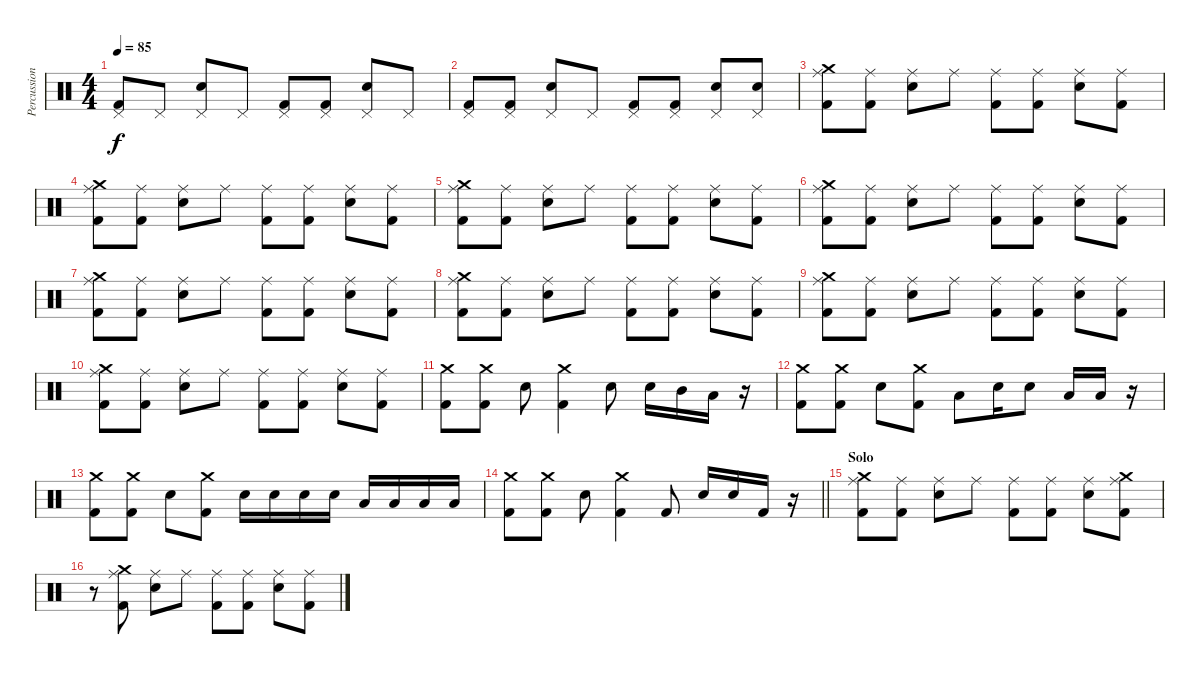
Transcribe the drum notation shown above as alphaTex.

\track ("Percussions" "Percussion") {instrument percussion}
\staff {score}
\articulation defaults
\ts (4 4)
\tempo 85
\clef neutral
\ks c
("Pedal Hi-Hat (hit)" "Kick (hit) 2").8{dy f} "Pedal Hi-Hat (hit)".8 ("Pedal Hi-Hat (hit)" "Snare (hit) 2").8 "Pedal Hi-Hat (hit)".8 ("Pedal Hi-Hat (hit)" "Kick (hit) 2").8 ("Pedal Hi-Hat (hit)" "Kick (hit) 2").8 ("Pedal Hi-Hat (hit)" "Snare (hit) 2").8 "Pedal Hi-Hat (hit)".8 |
("Pedal Hi-Hat (hit)" "Kick (hit) 2").8 ("Pedal Hi-Hat (hit)" "Kick (hit) 2").8 ("Pedal Hi-Hat (hit)" "Snare (hit) 2").8 "Pedal Hi-Hat (hit)".8 ("Pedal Hi-Hat (hit)" "Kick (hit) 2").8 ("Pedal Hi-Hat (hit)" "Kick (hit) 2").8 ("Pedal Hi-Hat (hit)" "Snare (hit) 2").8 ("Pedal Hi-Hat (hit)" "Snare (hit) 2").8 |
("Ride (middle)" "Crash medium (hit)" "Kick (hit) 2").8 ("Ride (middle)" "Kick (hit) 2").8 ("Ride (middle)" "Snare (hit) 2").8 "Ride (middle)".8 ("Ride (middle)" "Kick (hit) 2").8 ("Ride (middle)" "Kick (hit) 2").8 ("Ride (middle)" "Snare (hit) 2").8 ("Ride (middle)" "Kick (hit) 2").8 |
("Ride (middle)" "Crash medium (hit)" "Kick (hit) 2").8 ("Ride (middle)" "Kick (hit) 2").8 ("Ride (middle)" "Snare (hit) 2").8 "Ride (middle)".8 ("Ride (middle)" "Kick (hit) 2").8 ("Ride (middle)" "Kick (hit) 2").8 ("Ride (middle)" "Snare (hit) 2").8 ("Ride (middle)" "Kick (hit) 2").8 |
("Ride (middle)" "Crash medium (hit)" "Kick (hit) 2").8 ("Ride (middle)" "Kick (hit) 2").8 ("Ride (middle)" "Snare (hit) 2").8 "Ride (middle)".8 ("Ride (middle)" "Kick (hit) 2").8 ("Ride (middle)" "Kick (hit) 2").8 ("Ride (middle)" "Snare (hit) 2").8 ("Ride (middle)" "Kick (hit) 2").8 |
("Ride (middle)" "Crash medium (hit)" "Kick (hit) 2").8 ("Ride (middle)" "Kick (hit) 2").8 ("Ride (middle)" "Snare (hit) 2").8 "Ride (middle)".8 ("Ride (middle)" "Kick (hit) 2").8 ("Ride (middle)" "Kick (hit) 2").8 ("Ride (middle)" "Snare (hit) 2").8 ("Ride (middle)" "Kick (hit) 2").8 |
("Ride (middle)" "Crash medium (hit)" "Kick (hit) 2").8 ("Ride (middle)" "Kick (hit) 2").8 ("Ride (middle)" "Snare (hit) 2").8 "Ride (middle)".8 ("Ride (middle)" "Kick (hit) 2").8 ("Ride (middle)" "Kick (hit) 2").8 ("Ride (middle)" "Snare (hit) 2").8 ("Ride (middle)" "Kick (hit) 2").8 |
("Ride (middle)" "Crash medium (hit)" "Kick (hit) 2").8 ("Ride (middle)" "Kick (hit) 2").8 ("Ride (middle)" "Snare (hit) 2").8 "Ride (middle)".8 ("Ride (middle)" "Kick (hit) 2").8 ("Ride (middle)" "Kick (hit) 2").8 ("Ride (middle)" "Snare (hit) 2").8 ("Ride (middle)" "Kick (hit) 2").8 |
("Ride (middle)" "Crash medium (hit)" "Kick (hit) 2").8 ("Ride (middle)" "Kick (hit) 2").8 ("Ride (middle)" "Snare (hit) 2").8 "Ride (middle)".8 ("Ride (middle)" "Kick (hit) 2").8 ("Ride (middle)" "Kick (hit) 2").8 ("Ride (middle)" "Snare (hit) 2").8 ("Ride (middle)" "Kick (hit) 2").8 |
("Ride (middle)" "Crash medium (hit)" "Kick (hit) 2").8 ("Ride (middle)" "Kick (hit) 2").8 ("Ride (middle)" "Snare (hit) 2").8 "Ride (middle)".8 ("Ride (middle)" "Kick (hit) 2").8 ("Ride (middle)" "Kick (hit) 2").8 ("Ride (middle)" "Snare (hit) 2").8 ("Ride (middle)" "Kick (hit) 2").8 |
("Crash medium (hit)" "Kick (hit) 2").8 ("Crash medium (hit)" "Kick (hit) 2").8 "Snare (hit) 2".8 ("Crash medium (hit)" "Kick (hit) 2").4 "Snare (hit) 2".8 "Snare (hit) 2".16 "Mid Tom (hit)".16 "Low Tom (hit)".16 r.16 |
("Crash medium (hit)" "Kick (hit) 2").8 ("Crash medium (hit)" "Kick (hit) 2").8 "Snare (hit) 2".8 ("Crash medium (hit)" "Kick (hit) 2").8 "Low Floor Tom (hit)".8 "Snare (hit) 2".16 "Snare (hit) 2".8 "Low Floor Tom (hit)".16 "Low Floor Tom (hit)".16 r.16 |
("Crash medium (hit)" "Kick (hit) 2").8 ("Crash medium (hit)" "Kick (hit) 2").8 "Snare (hit) 2".8 ("Crash medium (hit)" "Kick (hit) 2").8 "Snare (hit) 2".16 "Snare (hit) 2".16 "Snare (hit) 2".16 "Snare (hit) 2".16 "Low Tom (hit)".16 "Low Tom (hit)".16 "Low Tom (hit)".16 "Low Tom (hit)".16 |
\barLineRight lightlight
("Crash medium (hit)" "Kick (hit) 2").8 ("Crash medium (hit)" "Kick (hit) 2").8 "Snare (hit) 2".8 ("Crash medium (hit)" "Kick (hit) 2").4 "Kick (hit) 2".8 "Snare (hit) 2".16 "Snare (hit) 2".16 "Kick (hit) 2".16 r.16 |
\section ("" "Solo")
("Ride (middle)" "Crash medium (hit)" "Kick (hit) 2").8 ("Ride (middle)" "Kick (hit) 2").8 ("Ride (middle)" "Snare (hit) 2").8 "Ride (middle)".8 ("Ride (middle)" "Kick (hit) 2").8 ("Ride (middle)" "Kick (hit) 2").8 ("Ride (middle)" "Snare (hit) 2").8 ("Crash medium (hit)" "Ride (middle)" "Kick (hit) 2").8 |
r.8 ("Crash medium (hit)" "Ride (middle)" "Kick (hit) 2").8 ("Ride (middle)" "Snare (hit) 2").8 "Ride (middle)".8 ("Ride (middle)" "Kick (hit) 2").8 ("Ride (middle)" "Kick (hit) 2").8 ("Ride (middle)" "Snare (hit) 2").8 ("Ride (middle)" "Kick (hit) 2").8
